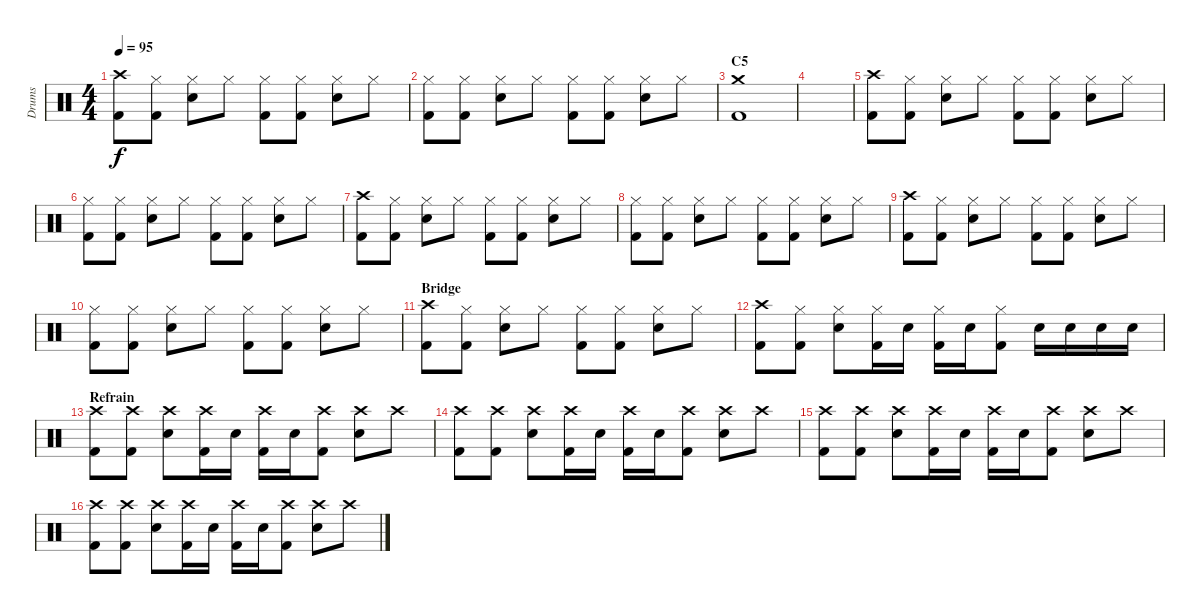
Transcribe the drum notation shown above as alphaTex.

\track ("Drums" "Drums") {instrument percussion}
\staff {score}
\articulation defaults
\ts (4 4)
\tempo 95
\clef neutral
\ks c
("Crash high (hit)" "Kick (hit) 2").8{dy f volume 15} ("Hi-Hat (closed)" "Kick (hit) 2").8 ("Hi-Hat (closed)" "Electric Snare (hit)").8 "Hi-Hat (closed)".8 ("Hi-Hat (closed)" "Kick (hit) 2").8 ("Hi-Hat (closed)" "Kick (hit) 2").8 ("Hi-Hat (closed)" "Electric Snare (hit)").8 "Hi-Hat (closed)".8 |
("Hi-Hat (closed)" "Kick (hit) 2").8 ("Hi-Hat (closed)" "Kick (hit) 2").8 ("Hi-Hat (closed)" "Electric Snare (hit)").8 "Hi-Hat (closed)".8 ("Hi-Hat (closed)" "Kick (hit) 2").8 ("Hi-Hat (closed)" "Kick (hit) 2").8 ("Hi-Hat (closed)" "Electric Snare (hit)").8 "Hi-Hat (closed)".8 |
\section ("" "C5")
("Crash medium (hit)" "Kick (hit) 2").1 |
|
("Crash high (hit)" "Kick (hit) 2").8{volume 15} ("Hi-Hat (closed)" "Kick (hit) 2").8 ("Hi-Hat (closed)" "Electric Snare (hit)").8 "Hi-Hat (closed)".8 ("Hi-Hat (closed)" "Kick (hit) 2").8 ("Hi-Hat (closed)" "Kick (hit) 2").8 ("Hi-Hat (closed)" "Electric Snare (hit)").8 "Hi-Hat (closed)".8 |
("Hi-Hat (closed)" "Kick (hit) 2").8 ("Hi-Hat (closed)" "Kick (hit) 2").8 ("Hi-Hat (closed)" "Electric Snare (hit)").8 "Hi-Hat (closed)".8 ("Hi-Hat (closed)" "Kick (hit) 2").8 ("Hi-Hat (closed)" "Kick (hit) 2").8 ("Hi-Hat (closed)" "Electric Snare (hit)").8 "Hi-Hat (closed)".8 |
("Crash high (hit)" "Kick (hit) 2").8{volume 15} ("Hi-Hat (closed)" "Kick (hit) 2").8 ("Hi-Hat (closed)" "Electric Snare (hit)").8 "Hi-Hat (closed)".8 ("Hi-Hat (closed)" "Kick (hit) 2").8 ("Hi-Hat (closed)" "Kick (hit) 2").8 ("Hi-Hat (closed)" "Electric Snare (hit)").8 "Hi-Hat (closed)".8 |
("Hi-Hat (closed)" "Kick (hit) 2").8 ("Hi-Hat (closed)" "Kick (hit) 2").8 ("Hi-Hat (closed)" "Electric Snare (hit)").8 "Hi-Hat (closed)".8 ("Hi-Hat (closed)" "Kick (hit) 2").8 ("Hi-Hat (closed)" "Kick (hit) 2").8 ("Hi-Hat (closed)" "Electric Snare (hit)").8 "Hi-Hat (closed)".8 |
("Crash high (hit)" "Kick (hit) 2").8{volume 15} ("Hi-Hat (closed)" "Kick (hit) 2").8 ("Hi-Hat (closed)" "Electric Snare (hit)").8 "Hi-Hat (closed)".8 ("Hi-Hat (closed)" "Kick (hit) 2").8 ("Hi-Hat (closed)" "Kick (hit) 2").8 ("Hi-Hat (closed)" "Electric Snare (hit)").8 "Hi-Hat (closed)".8 |
("Hi-Hat (closed)" "Kick (hit) 2").8 ("Hi-Hat (closed)" "Kick (hit) 2").8 ("Hi-Hat (closed)" "Electric Snare (hit)").8 "Hi-Hat (closed)".8 ("Hi-Hat (closed)" "Kick (hit) 2").8 ("Hi-Hat (closed)" "Kick (hit) 2").8 ("Hi-Hat (closed)" "Electric Snare (hit)").8 "Hi-Hat (closed)".8 |
\section ("" "Bridge")
("Crash high (hit)" "Kick (hit) 2").8 ("Hi-Hat (closed)" "Kick (hit) 2").8 ("Hi-Hat (closed)" "Electric Snare (hit)").8 "Hi-Hat (closed)".8 ("Hi-Hat (closed)" "Kick (hit) 2").8 ("Hi-Hat (closed)" "Kick (hit) 2").8 ("Hi-Hat (closed)" "Electric Snare (hit)").8 "Hi-Hat (closed)".8 |
("Crash high (hit)" "Kick (hit) 2").8 ("Hi-Hat (closed)" "Kick (hit) 2").8 ("Hi-Hat (closed)" "Electric Snare (hit)").8 ("Hi-Hat (closed)" "Kick (hit) 2").16 "Electric Snare (hit)".16 ("Hi-Hat (closed)" "Kick (hit) 2").16 "Electric Snare (hit)".16 ("Hi-Hat (closed)" "Kick (hit) 2").8 "Electric Snare (hit)".16 "Electric Snare (hit)".16 "Electric Snare (hit)".16 "Electric Snare (hit)".16 |
\section ("" "Refrain")
("Crash high (hit)" "Kick (hit) 2").8 ("Crash high (hit)" "Kick (hit) 2").8 ("Crash high (hit)" "Electric Snare (hit)").8 ("Crash high (hit)" "Kick (hit) 2").16 "Electric Snare (hit)".16 ("Crash high (hit)" "Kick (hit) 2").16 "Electric Snare (hit)".16 ("Crash high (hit)" "Kick (hit) 2").8 ("Crash high (hit)" "Electric Snare (hit)").8 "Crash high (hit)".8 |
("Crash high (hit)" "Kick (hit) 2").8 ("Crash high (hit)" "Kick (hit) 2").8 ("Crash high (hit)" "Electric Snare (hit)").8 ("Crash high (hit)" "Kick (hit) 2").16 "Electric Snare (hit)".16 ("Crash high (hit)" "Kick (hit) 2").16 "Electric Snare (hit)".16 ("Crash high (hit)" "Kick (hit) 2").8 ("Crash high (hit)" "Electric Snare (hit)").8 "Crash high (hit)".8 |
("Crash high (hit)" "Kick (hit) 2").8 ("Crash high (hit)" "Kick (hit) 2").8 ("Crash high (hit)" "Electric Snare (hit)").8 ("Crash high (hit)" "Kick (hit) 2").16 "Electric Snare (hit)".16 ("Crash high (hit)" "Kick (hit) 2").16 "Electric Snare (hit)".16 ("Crash high (hit)" "Kick (hit) 2").8 ("Crash high (hit)" "Electric Snare (hit)").8 "Crash high (hit)".8 |
("Crash high (hit)" "Kick (hit) 2").8 ("Crash high (hit)" "Kick (hit) 2").8 ("Crash high (hit)" "Electric Snare (hit)").8 ("Crash high (hit)" "Kick (hit) 2").16 "Electric Snare (hit)".16 ("Crash high (hit)" "Kick (hit) 2").16 "Electric Snare (hit)".16 ("Crash high (hit)" "Kick (hit) 2").8 ("Crash high (hit)" "Electric Snare (hit)").8 "Crash high (hit)".8
